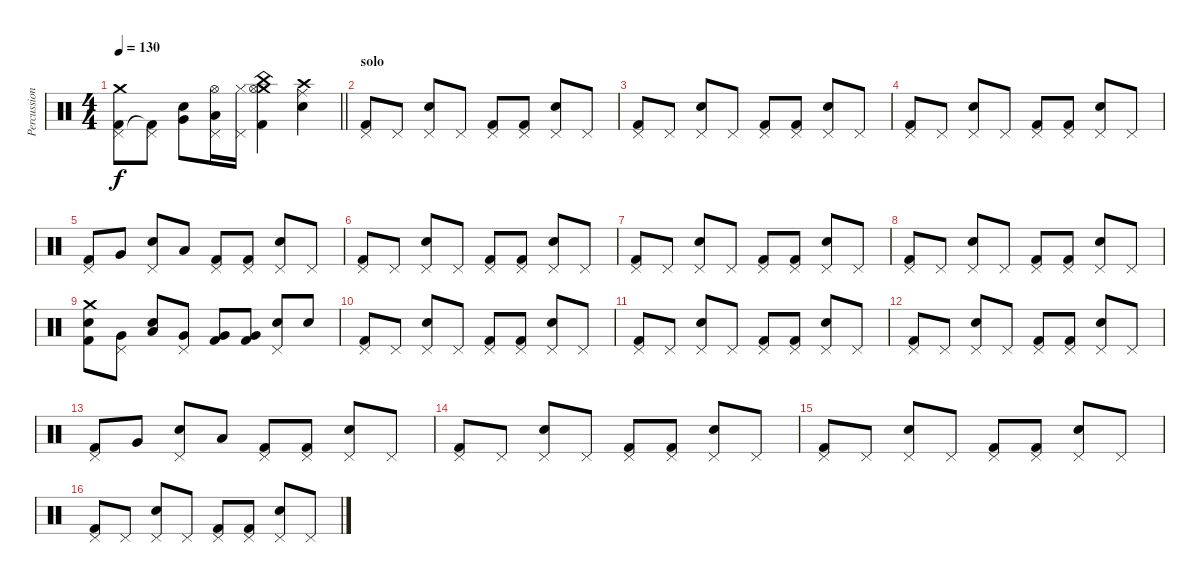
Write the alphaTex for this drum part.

\track ("Percussion" "Percussion") {instrument percussion}
\staff {score}
\articulation defaults
\ts (4 4)
\tempo 130
\clef neutral
\barLineRight lightlight
\ks c
("Crash medium (hit)" "Pedal Hi-Hat (hit)" "Kick (hit) 2").8{dy f} ("Pedal Hi-Hat (hit)" "Kick (hit) 2"{t}).8 ("Very Low Tom (hit)" "Electric Snare (hit)").8 ("Low Floor Tom (hit)" "Hi-Hat (open)" "Pedal Hi-Hat (hit)").16 ("Hi-Hat (closed)" "Pedal Hi-Hat (hit)").16 ("China (hit)" "Crash medium (hit)" "Hi-Hat (open)" "Kick (hit) 2").4 ("Crash high (hit)" "Ride (middle)" "Electric Snare (hit)").4 |
\section ("" "solo")
("Pedal Hi-Hat (hit)" "Kick (hit) 2").8 "Pedal Hi-Hat (hit)".8 ("Pedal Hi-Hat (hit)" "Electric Snare (hit)").8 "Pedal Hi-Hat (hit)".8 ("Pedal Hi-Hat (hit)" "Kick (hit) 2").8 ("Pedal Hi-Hat (hit)" "Kick (hit) 2").8 ("Pedal Hi-Hat (hit)" "Electric Snare (hit)").8 "Pedal Hi-Hat (hit)".8 |
("Pedal Hi-Hat (hit)" "Kick (hit) 2").8 "Pedal Hi-Hat (hit)".8 ("Pedal Hi-Hat (hit)" "Electric Snare (hit)").8 "Pedal Hi-Hat (hit)".8 ("Pedal Hi-Hat (hit)" "Kick (hit) 2").8 ("Pedal Hi-Hat (hit)" "Kick (hit) 2").8 ("Pedal Hi-Hat (hit)" "Electric Snare (hit)").8 "Pedal Hi-Hat (hit)".8 |
("Pedal Hi-Hat (hit)" "Kick (hit) 2").8 "Pedal Hi-Hat (hit)".8 ("Pedal Hi-Hat (hit)" "Electric Snare (hit)").8 "Pedal Hi-Hat (hit)".8 ("Pedal Hi-Hat (hit)" "Kick (hit) 2").8 ("Pedal Hi-Hat (hit)" "Kick (hit) 2").8 ("Pedal Hi-Hat (hit)" "Electric Snare (hit)").8 "Pedal Hi-Hat (hit)".8 |
("Pedal Hi-Hat (hit)" "Kick (hit) 2").8 "Very Low Tom (hit)".8 ("Pedal Hi-Hat (hit)" "Electric Snare (hit)").8 "Low Floor Tom (hit)".8 ("Pedal Hi-Hat (hit)" "Kick (hit) 2").8 ("Pedal Hi-Hat (hit)" "Kick (hit) 2").8 ("Pedal Hi-Hat (hit)" "Electric Snare (hit)").8 "Pedal Hi-Hat (hit)".8 |
("Pedal Hi-Hat (hit)" "Kick (hit) 2").8 "Pedal Hi-Hat (hit)".8 ("Pedal Hi-Hat (hit)" "Electric Snare (hit)").8 "Pedal Hi-Hat (hit)".8 ("Pedal Hi-Hat (hit)" "Kick (hit) 2").8 ("Pedal Hi-Hat (hit)" "Kick (hit) 2").8 ("Pedal Hi-Hat (hit)" "Electric Snare (hit)").8 "Pedal Hi-Hat (hit)".8 |
("Pedal Hi-Hat (hit)" "Kick (hit) 2").8 "Pedal Hi-Hat (hit)".8 ("Pedal Hi-Hat (hit)" "Electric Snare (hit)").8 "Pedal Hi-Hat (hit)".8 ("Pedal Hi-Hat (hit)" "Kick (hit) 2").8 ("Pedal Hi-Hat (hit)" "Kick (hit) 2").8 ("Pedal Hi-Hat (hit)" "Electric Snare (hit)").8 "Pedal Hi-Hat (hit)".8 |
("Pedal Hi-Hat (hit)" "Kick (hit) 2").8 "Pedal Hi-Hat (hit)".8 ("Pedal Hi-Hat (hit)" "Electric Snare (hit)").8 "Pedal Hi-Hat (hit)".8 ("Pedal Hi-Hat (hit)" "Kick (hit) 2").8 ("Pedal Hi-Hat (hit)" "Kick (hit) 2").8 ("Pedal Hi-Hat (hit)" "Electric Snare (hit)").8 "Pedal Hi-Hat (hit)".8 |
("Crash medium (hit)" "Electric Snare (hit)" "Kick (hit) 2").8 ("Pedal Hi-Hat (hit)" "Very Low Tom (hit)").8 ("Electric Snare (hit)" "Low Floor Tom (hit)").8 ("Pedal Hi-Hat (hit)" "Very Low Tom (hit)").8 ("Very Low Tom (hit)" "Kick (hit) 2").8 ("Very Low Tom (hit)" "Kick (hit) 2").8 ("Pedal Hi-Hat (hit)" "Electric Snare (hit)").8 "Electric Snare (hit)".8 |
("Pedal Hi-Hat (hit)" "Kick (hit) 2").8 "Pedal Hi-Hat (hit)".8 ("Pedal Hi-Hat (hit)" "Electric Snare (hit)").8 "Pedal Hi-Hat (hit)".8 ("Pedal Hi-Hat (hit)" "Kick (hit) 2").8 ("Pedal Hi-Hat (hit)" "Kick (hit) 2").8 ("Pedal Hi-Hat (hit)" "Electric Snare (hit)").8 "Pedal Hi-Hat (hit)".8 |
("Pedal Hi-Hat (hit)" "Kick (hit) 2").8 "Pedal Hi-Hat (hit)".8 ("Pedal Hi-Hat (hit)" "Electric Snare (hit)").8 "Pedal Hi-Hat (hit)".8 ("Pedal Hi-Hat (hit)" "Kick (hit) 2").8 ("Pedal Hi-Hat (hit)" "Kick (hit) 2").8 ("Pedal Hi-Hat (hit)" "Electric Snare (hit)").8 "Pedal Hi-Hat (hit)".8 |
("Pedal Hi-Hat (hit)" "Kick (hit) 2").8 "Pedal Hi-Hat (hit)".8 ("Pedal Hi-Hat (hit)" "Electric Snare (hit)").8 "Pedal Hi-Hat (hit)".8 ("Pedal Hi-Hat (hit)" "Kick (hit) 2").8 ("Pedal Hi-Hat (hit)" "Kick (hit) 2").8 ("Pedal Hi-Hat (hit)" "Electric Snare (hit)").8 "Pedal Hi-Hat (hit)".8 |
("Pedal Hi-Hat (hit)" "Kick (hit) 2").8 "Very Low Tom (hit)".8 ("Pedal Hi-Hat (hit)" "Electric Snare (hit)").8 "Low Floor Tom (hit)".8 ("Pedal Hi-Hat (hit)" "Kick (hit) 2").8 ("Pedal Hi-Hat (hit)" "Kick (hit) 2").8 ("Pedal Hi-Hat (hit)" "Electric Snare (hit)").8 "Pedal Hi-Hat (hit)".8 |
("Pedal Hi-Hat (hit)" "Kick (hit) 2").8 "Pedal Hi-Hat (hit)".8 ("Pedal Hi-Hat (hit)" "Electric Snare (hit)").8 "Pedal Hi-Hat (hit)".8 ("Pedal Hi-Hat (hit)" "Kick (hit) 2").8 ("Pedal Hi-Hat (hit)" "Kick (hit) 2").8 ("Pedal Hi-Hat (hit)" "Electric Snare (hit)").8 "Pedal Hi-Hat (hit)".8 |
("Pedal Hi-Hat (hit)" "Kick (hit) 2").8 "Pedal Hi-Hat (hit)".8 ("Pedal Hi-Hat (hit)" "Electric Snare (hit)").8 "Pedal Hi-Hat (hit)".8 ("Pedal Hi-Hat (hit)" "Kick (hit) 2").8 ("Pedal Hi-Hat (hit)" "Kick (hit) 2").8 ("Pedal Hi-Hat (hit)" "Electric Snare (hit)").8 "Pedal Hi-Hat (hit)".8 |
("Pedal Hi-Hat (hit)" "Kick (hit) 2").8 "Pedal Hi-Hat (hit)".8 ("Pedal Hi-Hat (hit)" "Electric Snare (hit)").8 "Pedal Hi-Hat (hit)".8 ("Pedal Hi-Hat (hit)" "Kick (hit) 2").8 ("Pedal Hi-Hat (hit)" "Kick (hit) 2").8 ("Pedal Hi-Hat (hit)" "Electric Snare (hit)").8 "Pedal Hi-Hat (hit)".8
